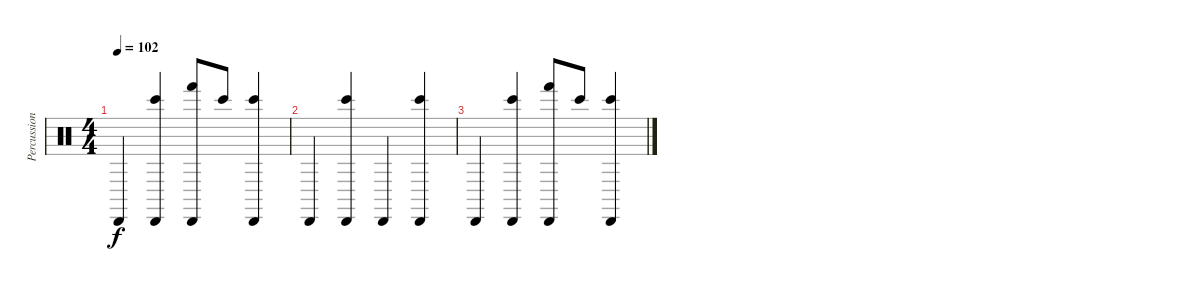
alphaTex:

\track ("Percussions" "Percussion") {instrument percussion}
\staff {score}
\articulation defaults
\ts (4 4)
\tempo 102
\clef neutral
\ks c "Cabasa (hit)".4{dy f}
("Cabasa (hit)" "Bongo High (hit)").4 ("Cabasa (hit)" "Hand (hit)").8 "Bongo High (hit)".8 ("Cabasa (hit)" "Bongo High (hit)").4 |
"Cabasa (hit)".4 ("Cabasa (hit)" "Bongo High (hit)").4 "Cabasa (hit)".4 ("Cabasa (hit)" "Bongo High (hit)").4 |
"Cabasa (hit)".4 ("Cabasa (hit)" "Bongo High (hit)").4 ("Cabasa (hit)" "Hand (hit)").8 "Bongo High (hit)".8 ("Cabasa (hit)" "Bongo High (hit)").4
